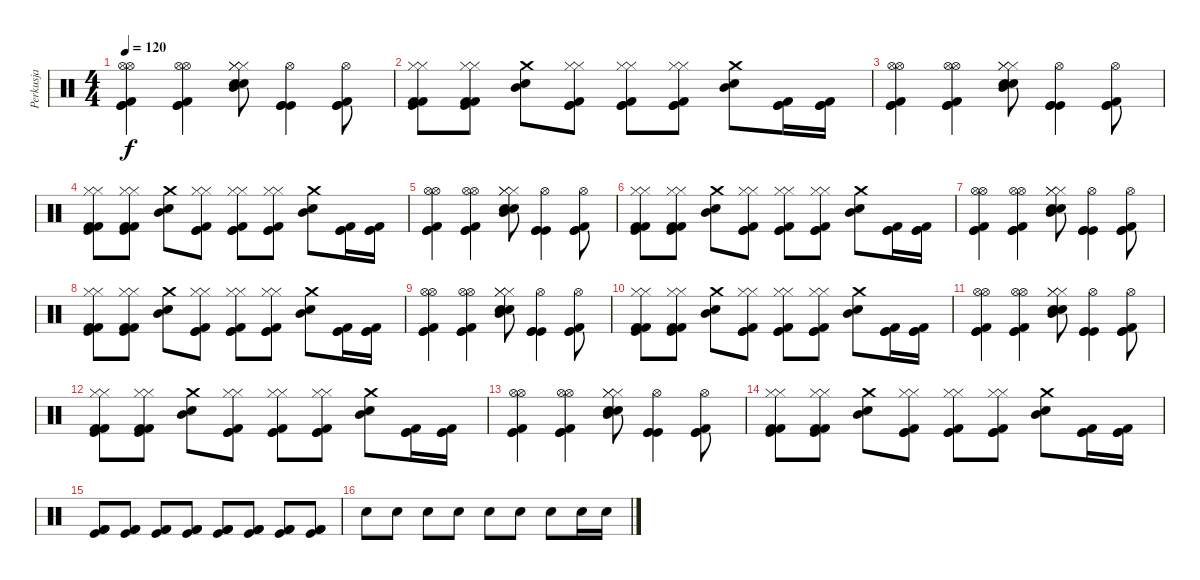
\track ("Perkusja" "Perkusja") {instrument percussion}
\staff {score}
\articulation defaults
\ts (4 4)
\tempo 120
\clef neutral
\ks c
("Hi-Hat (open)" "Hi-Hat (open)" "Kick (hit)" "Kick (hit) 2" "Kick (hit)").4{dy f} ("Hi-Hat (open)" "Hi-Hat (open)" "Kick (hit)" "Kick (hit) 2" "Kick (hit)").4 ("Hi-Hat (closed)" "Hi-Hat (closed)" "Hi-Hat (closed)" "Snare (hit) 2" "Snare (hit) 2" "Mid Tom (hit)").8 ("Hi-Hat (open)" "Kick (hit)" "Kick (hit)" "Kick (hit)").4 ("Hi-Hat (open)" "Kick (hit)" "Kick (hit)" "Kick (hit) 2").8 |
("Hi-Hat (closed)" "Hi-Hat (closed)" "Kick (hit)" "Kick (hit) 2" "Kick (hit) 2").8 ("Hi-Hat (closed)" "Hi-Hat (closed)" "Kick (hit)" "Kick (hit) 2" "Kick (hit) 2").8 ("Crash medium (hit)" "Mid Tom (hit)" "Snare (hit) 2").8 ("Hi-Hat (closed)" "Hi-Hat (closed)" "Kick (hit)" "Kick (hit) 2" "Kick (hit)").8 ("Hi-Hat (closed)" "Hi-Hat (closed)" "Kick (hit)" "Kick (hit) 2" "Kick (hit)").8 ("Hi-Hat (closed)" "Hi-Hat (closed)" "Kick (hit)" "Kick (hit) 2" "Kick (hit)").8 ("Crash medium (hit)" "Mid Tom (hit)" "Snare (hit) 2").8 ("Kick (hit)" "Kick (hit)" "Kick (hit) 2").16 ("Kick (hit)" "Kick (hit)" "Kick (hit) 2").16 |
("Hi-Hat (open)" "Hi-Hat (open)" "Kick (hit)" "Kick (hit) 2" "Kick (hit)").4 ("Hi-Hat (open)" "Hi-Hat (open)" "Kick (hit)" "Kick (hit) 2" "Kick (hit)").4 ("Hi-Hat (closed)" "Hi-Hat (closed)" "Hi-Hat (closed)" "Snare (hit) 2" "Snare (hit) 2" "Mid Tom (hit)").8 ("Hi-Hat (open)" "Kick (hit)" "Kick (hit)" "Kick (hit)").4 ("Hi-Hat (open)" "Kick (hit)" "Kick (hit)" "Kick (hit) 2").8 |
("Hi-Hat (closed)" "Hi-Hat (closed)" "Kick (hit)" "Kick (hit) 2" "Kick (hit) 2").8 ("Hi-Hat (closed)" "Hi-Hat (closed)" "Kick (hit)" "Kick (hit) 2" "Kick (hit) 2").8 ("Crash medium (hit)" "Mid Tom (hit)" "Snare (hit) 2").8 ("Hi-Hat (closed)" "Hi-Hat (closed)" "Kick (hit)" "Kick (hit) 2" "Kick (hit)").8 ("Hi-Hat (closed)" "Hi-Hat (closed)" "Kick (hit)" "Kick (hit) 2" "Kick (hit)").8 ("Hi-Hat (closed)" "Hi-Hat (closed)" "Kick (hit)" "Kick (hit) 2" "Kick (hit)").8 ("Crash medium (hit)" "Mid Tom (hit)" "Snare (hit) 2").8 ("Kick (hit)" "Kick (hit)" "Kick (hit) 2").16 ("Kick (hit)" "Kick (hit)" "Kick (hit) 2").16 |
("Hi-Hat (open)" "Hi-Hat (open)" "Kick (hit)" "Kick (hit) 2" "Kick (hit)").4 ("Hi-Hat (open)" "Hi-Hat (open)" "Kick (hit)" "Kick (hit) 2" "Kick (hit)").4 ("Hi-Hat (closed)" "Hi-Hat (closed)" "Hi-Hat (closed)" "Snare (hit) 2" "Snare (hit) 2" "Mid Tom (hit)").8 ("Hi-Hat (open)" "Kick (hit)" "Kick (hit)" "Kick (hit)").4 ("Hi-Hat (open)" "Kick (hit)" "Kick (hit)" "Kick (hit) 2").8 |
("Hi-Hat (closed)" "Hi-Hat (closed)" "Kick (hit)" "Kick (hit) 2" "Kick (hit) 2").8 ("Hi-Hat (closed)" "Hi-Hat (closed)" "Kick (hit)" "Kick (hit) 2" "Kick (hit) 2").8 ("Crash medium (hit)" "Mid Tom (hit)" "Snare (hit) 2").8 ("Hi-Hat (closed)" "Hi-Hat (closed)" "Kick (hit)" "Kick (hit) 2" "Kick (hit)").8 ("Hi-Hat (closed)" "Hi-Hat (closed)" "Kick (hit)" "Kick (hit) 2" "Kick (hit)").8 ("Hi-Hat (closed)" "Hi-Hat (closed)" "Kick (hit)" "Kick (hit) 2" "Kick (hit)").8 ("Crash medium (hit)" "Mid Tom (hit)" "Snare (hit) 2").8 ("Kick (hit)" "Kick (hit)" "Kick (hit) 2").16 ("Kick (hit)" "Kick (hit)" "Kick (hit) 2").16 |
("Hi-Hat (open)" "Hi-Hat (open)" "Kick (hit)" "Kick (hit) 2" "Kick (hit)").4 ("Hi-Hat (open)" "Hi-Hat (open)" "Kick (hit)" "Kick (hit) 2" "Kick (hit)").4 ("Hi-Hat (closed)" "Hi-Hat (closed)" "Hi-Hat (closed)" "Snare (hit) 2" "Snare (hit) 2" "Mid Tom (hit)").8 ("Hi-Hat (open)" "Kick (hit)" "Kick (hit)" "Kick (hit)").4 ("Hi-Hat (open)" "Kick (hit)" "Kick (hit)" "Kick (hit) 2").8 |
("Hi-Hat (closed)" "Hi-Hat (closed)" "Kick (hit)" "Kick (hit) 2" "Kick (hit) 2").8 ("Hi-Hat (closed)" "Hi-Hat (closed)" "Kick (hit)" "Kick (hit) 2" "Kick (hit) 2").8 ("Crash medium (hit)" "Mid Tom (hit)" "Snare (hit) 2").8 ("Hi-Hat (closed)" "Hi-Hat (closed)" "Kick (hit)" "Kick (hit) 2" "Kick (hit)").8 ("Hi-Hat (closed)" "Hi-Hat (closed)" "Kick (hit)" "Kick (hit) 2" "Kick (hit)").8 ("Hi-Hat (closed)" "Hi-Hat (closed)" "Kick (hit)" "Kick (hit) 2" "Kick (hit)").8 ("Crash medium (hit)" "Mid Tom (hit)" "Snare (hit) 2").8 ("Kick (hit)" "Kick (hit)" "Kick (hit) 2").16 ("Kick (hit)" "Kick (hit)" "Kick (hit) 2").16 |
("Hi-Hat (open)" "Hi-Hat (open)" "Kick (hit)" "Kick (hit) 2" "Kick (hit)").4 ("Hi-Hat (open)" "Hi-Hat (open)" "Kick (hit)" "Kick (hit) 2" "Kick (hit)").4 ("Hi-Hat (closed)" "Hi-Hat (closed)" "Hi-Hat (closed)" "Snare (hit) 2" "Snare (hit) 2" "Mid Tom (hit)").8 ("Hi-Hat (open)" "Kick (hit)" "Kick (hit)" "Kick (hit)").4 ("Hi-Hat (open)" "Kick (hit)" "Kick (hit)" "Kick (hit) 2").8 |
("Hi-Hat (closed)" "Hi-Hat (closed)" "Kick (hit)" "Kick (hit) 2" "Kick (hit) 2").8 ("Hi-Hat (closed)" "Hi-Hat (closed)" "Kick (hit)" "Kick (hit) 2" "Kick (hit) 2").8 ("Crash medium (hit)" "Mid Tom (hit)" "Snare (hit) 2").8 ("Hi-Hat (closed)" "Hi-Hat (closed)" "Kick (hit)" "Kick (hit) 2" "Kick (hit)").8 ("Hi-Hat (closed)" "Hi-Hat (closed)" "Kick (hit)" "Kick (hit) 2" "Kick (hit)").8 ("Hi-Hat (closed)" "Hi-Hat (closed)" "Kick (hit)" "Kick (hit) 2" "Kick (hit)").8 ("Crash medium (hit)" "Mid Tom (hit)" "Snare (hit) 2").8 ("Kick (hit)" "Kick (hit)" "Kick (hit) 2").16 ("Kick (hit)" "Kick (hit)" "Kick (hit) 2").16 |
("Hi-Hat (open)" "Hi-Hat (open)" "Kick (hit)" "Kick (hit) 2" "Kick (hit)").4 ("Hi-Hat (open)" "Hi-Hat (open)" "Kick (hit)" "Kick (hit) 2" "Kick (hit)").4 ("Hi-Hat (closed)" "Hi-Hat (closed)" "Hi-Hat (closed)" "Snare (hit) 2" "Snare (hit) 2" "Mid Tom (hit)").8 ("Hi-Hat (open)" "Kick (hit)" "Kick (hit)" "Kick (hit)").4 ("Hi-Hat (open)" "Kick (hit)" "Kick (hit)" "Kick (hit) 2").8 |
("Hi-Hat (closed)" "Hi-Hat (closed)" "Kick (hit)" "Kick (hit) 2" "Kick (hit) 2").8 ("Hi-Hat (closed)" "Hi-Hat (closed)" "Kick (hit)" "Kick (hit) 2" "Kick (hit) 2").8 ("Crash medium (hit)" "Mid Tom (hit)" "Snare (hit) 2").8 ("Hi-Hat (closed)" "Hi-Hat (closed)" "Kick (hit)" "Kick (hit) 2" "Kick (hit)").8 ("Hi-Hat (closed)" "Hi-Hat (closed)" "Kick (hit)" "Kick (hit) 2" "Kick (hit)").8 ("Hi-Hat (closed)" "Hi-Hat (closed)" "Kick (hit)" "Kick (hit) 2" "Kick (hit)").8 ("Crash medium (hit)" "Mid Tom (hit)" "Snare (hit) 2").8 ("Kick (hit)" "Kick (hit)" "Kick (hit) 2").16 ("Kick (hit)" "Kick (hit)" "Kick (hit) 2").16 |
("Hi-Hat (open)" "Hi-Hat (open)" "Kick (hit)" "Kick (hit) 2" "Kick (hit)").4 ("Hi-Hat (open)" "Hi-Hat (open)" "Kick (hit)" "Kick (hit) 2" "Kick (hit)").4 ("Hi-Hat (closed)" "Hi-Hat (closed)" "Hi-Hat (closed)" "Snare (hit) 2" "Snare (hit) 2" "Mid Tom (hit)").8 ("Hi-Hat (open)" "Kick (hit)" "Kick (hit)" "Kick (hit)").4 ("Hi-Hat (open)" "Kick (hit)" "Kick (hit)" "Kick (hit) 2").8 |
("Hi-Hat (closed)" "Hi-Hat (closed)" "Kick (hit)" "Kick (hit) 2" "Kick (hit) 2").8 ("Hi-Hat (closed)" "Hi-Hat (closed)" "Kick (hit)" "Kick (hit) 2" "Kick (hit) 2").8 ("Crash medium (hit)" "Mid Tom (hit)" "Snare (hit) 2").8 ("Hi-Hat (closed)" "Hi-Hat (closed)" "Kick (hit)" "Kick (hit) 2" "Kick (hit)").8 ("Hi-Hat (closed)" "Hi-Hat (closed)" "Kick (hit)" "Kick (hit) 2" "Kick (hit)").8 ("Hi-Hat (closed)" "Hi-Hat (closed)" "Kick (hit)" "Kick (hit) 2" "Kick (hit)").8 ("Crash medium (hit)" "Mid Tom (hit)" "Snare (hit) 2").8 ("Kick (hit)" "Kick (hit)" "Kick (hit) 2").16 ("Kick (hit)" "Kick (hit)" "Kick (hit) 2").16 |
("Kick (hit) 2" "Kick (hit)" "Kick (hit) 2").8 ("Kick (hit) 2" "Kick (hit)" "Kick (hit) 2").8 ("Kick (hit) 2" "Kick (hit)" "Kick (hit) 2").8 ("Kick (hit) 2" "Kick (hit)" "Kick (hit) 2").8 ("Kick (hit) 2" "Kick (hit)" "Kick (hit) 2").8 ("Kick (hit) 2" "Kick (hit)" "Kick (hit) 2").8 ("Kick (hit) 2" "Kick (hit)" "Kick (hit) 2").8 ("Kick (hit) 2" "Kick (hit)" "Kick (hit) 2").8 |
"Snare (hit) 2".8 "Snare (hit) 2".8 "Snare (hit) 2".8 "Snare (hit) 2".8 "Snare (hit) 2".8 "Snare (hit) 2".8 "Snare (hit) 2".8 "Snare (hit) 2".16 "Snare (hit) 2".16
